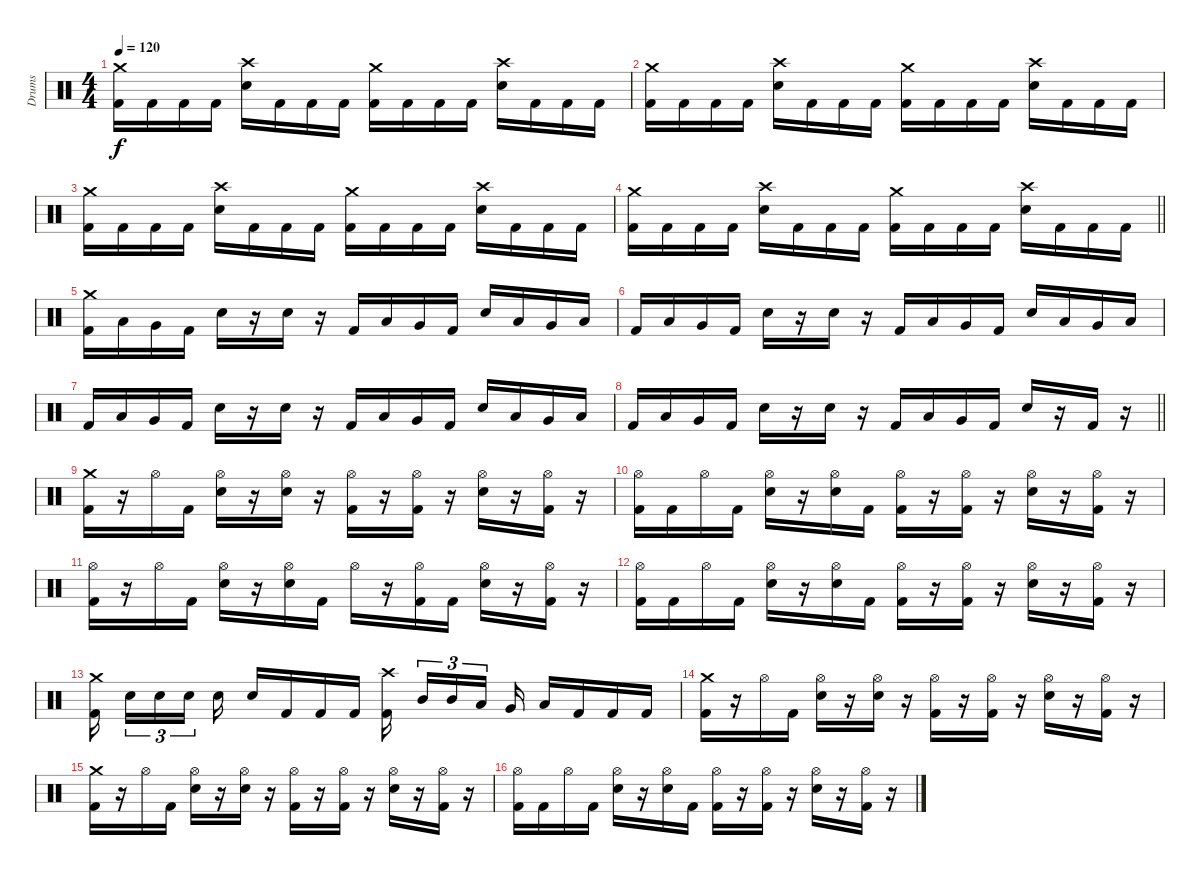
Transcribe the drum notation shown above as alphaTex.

\track ("Drums" "Drums") {instrument percussion}
\staff {score}
\articulation defaults
\ts (4 4)
\tempo 120
\clef neutral
\ks c
("Crash medium (hit)" "Kick (hit) 2").16{dy f} "Kick (hit) 2".16 "Kick (hit) 2".16 "Kick (hit) 2".16 ("Crash high (hit)" "Electric Snare (hit)").16 "Kick (hit) 2".16 "Kick (hit) 2".16 "Kick (hit) 2".16 ("Crash medium (hit)" "Kick (hit) 2").16 "Kick (hit) 2".16 "Kick (hit) 2".16 "Kick (hit) 2".16 ("Crash high (hit)" "Electric Snare (hit)").16 "Kick (hit) 2".16 "Kick (hit) 2".16 "Kick (hit) 2".16 |
("Crash medium (hit)" "Kick (hit) 2").16 "Kick (hit) 2".16 "Kick (hit) 2".16 "Kick (hit) 2".16 ("Crash high (hit)" "Electric Snare (hit)").16 "Kick (hit) 2".16 "Kick (hit) 2".16 "Kick (hit) 2".16 ("Crash medium (hit)" "Kick (hit) 2").16 "Kick (hit) 2".16 "Kick (hit) 2".16 "Kick (hit) 2".16 ("Crash high (hit)" "Electric Snare (hit)").16 "Kick (hit) 2".16 "Kick (hit) 2".16 "Kick (hit) 2".16 |
("Crash medium (hit)" "Kick (hit) 2").16 "Kick (hit) 2".16 "Kick (hit) 2".16 "Kick (hit) 2".16 ("Crash high (hit)" "Electric Snare (hit)").16 "Kick (hit) 2".16 "Kick (hit) 2".16 "Kick (hit) 2".16 ("Crash medium (hit)" "Kick (hit) 2").16 "Kick (hit) 2".16 "Kick (hit) 2".16 "Kick (hit) 2".16 ("Crash high (hit)" "Electric Snare (hit)").16 "Kick (hit) 2".16 "Kick (hit) 2".16 "Kick (hit) 2".16 |
\barLineRight lightlight
("Crash medium (hit)" "Kick (hit) 2").16 "Kick (hit) 2".16 "Kick (hit) 2".16 "Kick (hit) 2".16 ("Crash high (hit)" "Electric Snare (hit)").16 "Kick (hit) 2".16 "Kick (hit) 2".16 "Kick (hit) 2".16 ("Crash medium (hit)" "Kick (hit) 2").16 "Kick (hit) 2".16 "Kick (hit) 2".16 "Kick (hit) 2".16 ("Crash high (hit)" "Electric Snare (hit)").16 "Kick (hit) 2".16 "Kick (hit) 2".16 "Kick (hit) 2".16 |
\section ("" "")
("Crash medium (hit)" "Kick (hit) 2").16 "Low Tom (hit)".16 "Very Low Tom (hit)".16 "Kick (hit) 2".16 "Electric Snare (hit)".16 r.16 "Electric Snare (hit)".16 r.16 "Kick (hit) 2".16 "Low Tom (hit)".16 "Very Low Tom (hit)".16 "Kick (hit) 2".16 "Electric Snare (hit)".16 "Low Tom (hit)".16 "Very Low Tom (hit)".16 "Low Floor Tom (hit)".16 |
"Kick (hit) 2".16 "Low Tom (hit)".16 "Very Low Tom (hit)".16 "Kick (hit) 2".16 "Electric Snare (hit)".16 r.16 "Electric Snare (hit)".16 r.16 "Kick (hit) 2".16 "Low Tom (hit)".16 "Very Low Tom (hit)".16 "Kick (hit) 2".16 "Electric Snare (hit)".16 "Low Tom (hit)".16 "Very Low Tom (hit)".16 "Low Floor Tom (hit)".16 |
"Kick (hit) 2".16 "Low Tom (hit)".16 "Very Low Tom (hit)".16 "Kick (hit) 2".16 "Electric Snare (hit)".16 r.16 "Electric Snare (hit)".16 r.16 "Kick (hit) 2".16 "Low Tom (hit)".16 "Very Low Tom (hit)".16 "Kick (hit) 2".16 "Electric Snare (hit)".16 "Low Tom (hit)".16 "Very Low Tom (hit)".16 "Low Floor Tom (hit)".16 |
\barLineRight lightlight "Kick (hit) 2".16 "Low Tom (hit)".16 "Very Low Tom (hit)".16 "Kick (hit) 2".16 "Electric Snare (hit)".16
r.16 "Electric Snare (hit)".16 r.16 "Kick (hit) 2".16 "Low Tom (hit)".16 "Very Low Tom (hit)".16 "Kick (hit) 2".16 "Electric Snare (hit)".16 r.16 "Kick (hit) 2".16 r.16 |
\section ("" "")
("Crash medium (hit)" "Kick (hit) 2").16 r.16 "Hi-Hat (open)".16 "Kick (hit) 2".16 ("Hi-Hat (open)" "Electric Snare (hit)").16 r.16 ("Hi-Hat (open)" "Electric Snare (hit)").16 r.16 ("Hi-Hat (open)" "Kick (hit) 2").16 r.16 ("Hi-Hat (open)" "Kick (hit) 2").16 r.16 ("Hi-Hat (open)" "Electric Snare (hit)").16 r.16 ("Hi-Hat (open)" "Kick (hit) 2").16 r.16 |
("Hi-Hat (open)" "Kick (hit) 2").16 "Kick (hit) 2".16 "Hi-Hat (open)".16 "Kick (hit) 2".16 ("Hi-Hat (open)" "Electric Snare (hit)").16 r.16 ("Hi-Hat (open)" "Electric Snare (hit)").16 "Kick (hit) 2".16 ("Hi-Hat (open)" "Kick (hit) 2").16 r.16 ("Hi-Hat (open)" "Kick (hit) 2").16 r.16 ("Hi-Hat (open)" "Electric Snare (hit)").16 r.16 ("Hi-Hat (open)" "Kick (hit) 2").16 r.16 |
("Hi-Hat (open)" "Kick (hit) 2").16 r.16 "Hi-Hat (open)".16 "Kick (hit) 2".16 ("Hi-Hat (open)" "Electric Snare (hit)").16 r.16 ("Hi-Hat (open)" "Electric Snare (hit)").16 "Kick (hit) 2".16 "Hi-Hat (open)".16 r.16 ("Hi-Hat (open)" "Kick (hit) 2").16 "Kick (hit) 2".16 ("Hi-Hat (open)" "Electric Snare (hit)").16 r.16 ("Hi-Hat (open)" "Kick (hit) 2").16 r.16 |
("Hi-Hat (open)" "Kick (hit) 2").16 "Kick (hit) 2".16 "Hi-Hat (open)".16 "Kick (hit) 2".16 ("Hi-Hat (open)" "Electric Snare (hit)").16 r.16 ("Hi-Hat (open)" "Electric Snare (hit)").16 "Kick (hit) 2".16 ("Hi-Hat (open)" "Kick (hit) 2").16 r.16 ("Hi-Hat (open)" "Kick (hit) 2").16 r.16 ("Hi-Hat (open)" "Electric Snare (hit)").16 r.16 ("Hi-Hat (open)" "Kick (hit) 2").16 r.16 |
("Crash medium (hit)" "Kick (hit) 2").16 "Electric Snare (hit)".16{tu (3 2)} "Electric Snare (hit)".16{tu (3 2)} "Electric Snare (hit)".16{tu (3 2)} "Electric Snare (hit)".16 "Electric Snare (hit)".16 "Kick (hit) 2".16 "Kick (hit) 2".16 "Kick (hit) 2".16 ("Crash high (hit)" "Kick (hit) 2").16 "Mid Tom (hit)".16{tu (3 2)} "Mid Tom (hit)".16{tu (3 2)} "Low Tom (hit)".16{tu (3 2)} "Very Low Tom (hit)".16 "Low Floor Tom (hit)".16 "Kick (hit) 2".16 "Kick (hit) 2".16 "Kick (hit) 2".16 |
("Crash medium (hit)" "Kick (hit) 2").16 r.16 "Hi-Hat (open)".16 "Kick (hit) 2".16 ("Hi-Hat (open)" "Electric Snare (hit)").16 r.16 ("Hi-Hat (open)" "Electric Snare (hit)").16 r.16 ("Hi-Hat (open)" "Kick (hit) 2").16 r.16 ("Hi-Hat (open)" "Kick (hit) 2").16 r.16 ("Hi-Hat (open)" "Electric Snare (hit)").16 r.16 ("Hi-Hat (open)" "Kick (hit) 2").16 r.16 |
("Crash medium (hit)" "Kick (hit) 2").16 r.16 "Hi-Hat (open)".16 "Kick (hit) 2".16 ("Hi-Hat (open)" "Electric Snare (hit)").16 r.16 ("Hi-Hat (open)" "Electric Snare (hit)").16 r.16 ("Hi-Hat (open)" "Kick (hit) 2").16 r.16 ("Hi-Hat (open)" "Kick (hit) 2").16 r.16 ("Hi-Hat (open)" "Electric Snare (hit)").16 r.16 ("Hi-Hat (open)" "Kick (hit) 2").16 r.16 |
("Hi-Hat (open)" "Kick (hit) 2").16 "Kick (hit) 2".16 "Hi-Hat (open)".16 "Kick (hit) 2".16 ("Hi-Hat (open)" "Electric Snare (hit)").16 r.16 ("Hi-Hat (open)" "Electric Snare (hit)").16 "Kick (hit) 2".16 ("Hi-Hat (open)" "Kick (hit) 2").16 r.16 ("Hi-Hat (open)" "Kick (hit) 2").16 r.16 ("Hi-Hat (open)" "Electric Snare (hit)").16 r.16 ("Hi-Hat (open)" "Kick (hit) 2").16 r.16
